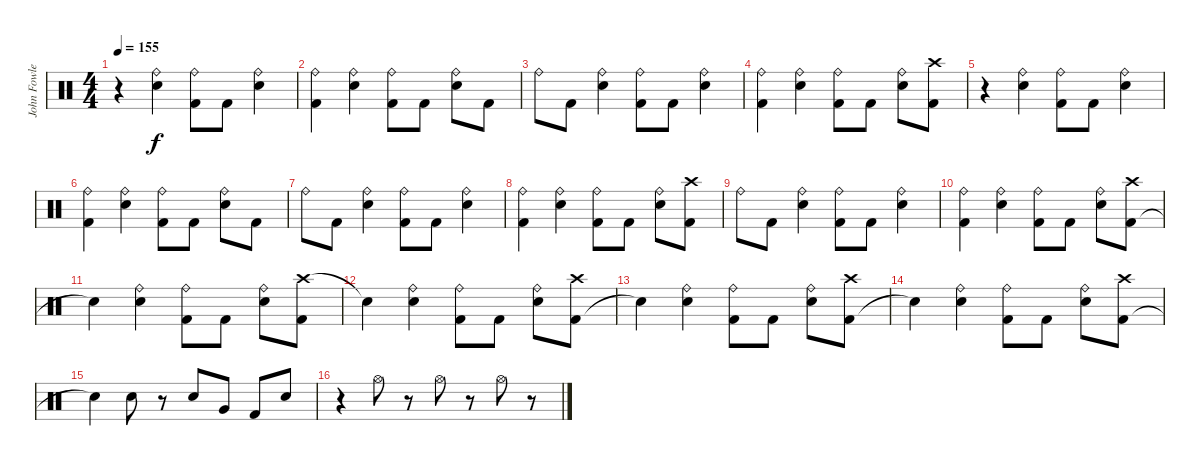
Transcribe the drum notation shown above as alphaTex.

\track ("John Fowler - Drums" "John Fowle") {instrument percussion}
\staff {score}
\articulation defaults
\ts (4 4)
\tempo 155
\clef neutral
\ks c
r.4{dy f} ("Ride (bell)" "Electric Snare (hit)").4 ("Ride (bell)" "Kick (hit) 2").8 "Kick (hit) 2".8 ("Electric Snare (hit)" "Ride (bell)").4 |
("Ride (bell)" "Kick (hit) 2").4 ("Ride (bell)" "Electric Snare (hit)").4 ("Kick (hit) 2" "Ride (bell)").8 "Kick (hit) 2".8 ("Ride (bell)" "Electric Snare (hit)").8 "Kick (hit) 2".8 |
"Ride (bell)".8 "Kick (hit) 2".8 ("Ride (bell)" "Electric Snare (hit)").4 ("Ride (bell)" "Kick (hit) 2").8 "Kick (hit) 2".8 ("Ride (bell)" "Electric Snare (hit)").4 |
("Ride (bell)" "Kick (hit) 2").4 ("Electric Snare (hit)" "Ride (bell)").4 ("Kick (hit) 2" "Ride (bell)").8 "Kick (hit) 2".8 ("Electric Snare (hit)" "Ride (bell)").8 ("Kick (hit) 2" "Crash high (hit)").8 |
r.4 ("Ride (bell)" "Electric Snare (hit)").4 ("Ride (bell)" "Kick (hit) 2").8 "Kick (hit) 2".8 ("Electric Snare (hit)" "Ride (bell)").4 |
("Ride (bell)" "Kick (hit) 2").4 ("Ride (bell)" "Electric Snare (hit)").4 ("Kick (hit) 2" "Ride (bell)").8 "Kick (hit) 2".8 ("Ride (bell)" "Electric Snare (hit)").8 "Kick (hit) 2".8 |
"Ride (bell)".8 "Kick (hit) 2".8 ("Ride (bell)" "Electric Snare (hit)").4 ("Ride (bell)" "Kick (hit) 2").8 "Kick (hit) 2".8 ("Ride (bell)" "Electric Snare (hit)").4 |
("Ride (bell)" "Kick (hit) 2").4 ("Electric Snare (hit)" "Ride (bell)").4 ("Kick (hit) 2" "Ride (bell)").8 "Kick (hit) 2".8 ("Electric Snare (hit)" "Ride (bell)").8 ("Kick (hit) 2" "Crash high (hit)").8 |
"Ride (bell)".8 "Kick (hit) 2".8 ("Ride (bell)" "Electric Snare (hit)").4 ("Ride (bell)" "Kick (hit) 2").8 "Kick (hit) 2".8 ("Ride (bell)" "Electric Snare (hit)").4 |
("Ride (bell)" "Kick (hit) 2").4 ("Electric Snare (hit)" "Ride (bell)").4 ("Kick (hit) 2" "Ride (bell)").8 "Kick (hit) 2".8 ("Electric Snare (hit)" "Ride (bell)").8 ("Kick (hit) 2" "Crash high (hit)").8 |
"Snare (hit)"{t}.4 ("Ride (bell)" "Electric Snare (hit)").4 ("Ride (bell)" "Kick (hit) 2").8 "Kick (hit) 2".8 ("Ride (bell)" "Electric Snare (hit)").8 ("Crash high (hit)" "Kick (hit) 2").8 |
"Snare (hit)"{t}.4 ("Ride (bell)" "Electric Snare (hit)").4 ("Ride (bell)" "Kick (hit) 2").8 "Kick (hit) 2".8 ("Ride (bell)" "Electric Snare (hit)").8 ("Kick (hit) 2" "Crash high (hit)").8 |
"Snare (hit)"{t}.4 ("Ride (bell)" "Electric Snare (hit)").4 ("Ride (bell)" "Kick (hit) 2").8 "Kick (hit) 2".8 ("Ride (bell)" "Electric Snare (hit)").8 ("Kick (hit) 2" "Crash high (hit)").8 |
"Snare (hit)"{t}.4 ("Ride (bell)" "Electric Snare (hit)").4 ("Ride (bell)" "Kick (hit) 2").8 "Kick (hit) 2".8 ("Ride (bell)" "Electric Snare (hit)").8 ("Kick (hit) 2" "Crash high (hit)").8 |
"Snare (hit)"{t}.4 "Electric Snare (hit)".8 r.8 "Electric Snare (hit)".8 "Very Low Tom (hit)".8 "Kick (hit) 2".8 "Electric Snare (hit)".8 |
r.4 "Hi-Hat (open)".8 r.8 "Hi-Hat (open)".8 r.8 "Hi-Hat (open)".8 r.8
